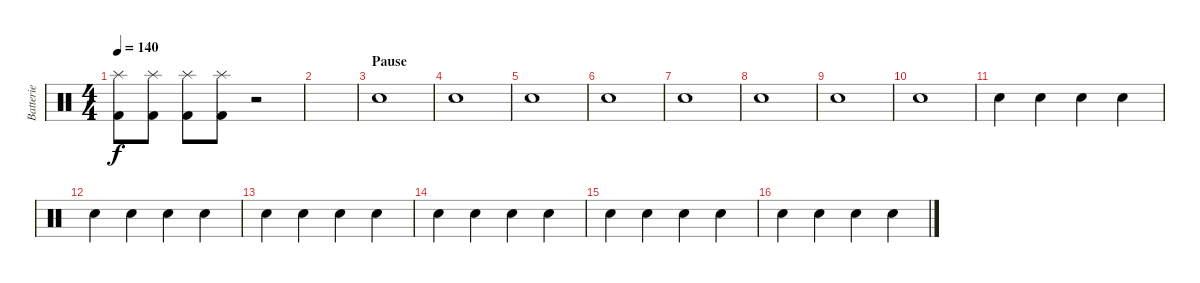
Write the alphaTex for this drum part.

\track ("Batterie" "Batterie") {instrument percussion}
\staff {score}
\articulation defaults
\ts (4 4)
\tempo 140
\clef neutral
\ks c
("Splash (hit)" "Kick (hit) 2").8{dy f} ("Splash (hit)" "Kick (hit) 2").8 ("Splash (hit)" "Kick (hit) 2").8 ("Splash (hit)" "Kick (hit) 2").8 r.2 |
|
\section ("" "Pause")
"Snare (hit) 2".1 |
"Snare (hit) 2".1 |
"Snare (hit) 2".1 |
"Snare (hit) 2".1 |
"Snare (hit) 2".1 |
"Snare (hit) 2".1 |
"Snare (hit) 2".1 |
"Snare (hit) 2".1 |
"Snare (hit) 2".4 "Snare (hit) 2".4 "Snare (hit) 2".4 "Snare (hit) 2".4 |
"Snare (hit) 2".4 "Snare (hit) 2".4 "Snare (hit) 2".4 "Snare (hit) 2".4 |
"Snare (hit) 2".4 "Snare (hit) 2".4 "Snare (hit) 2".4 "Snare (hit) 2".4 |
"Snare (hit) 2".4 "Snare (hit) 2".4 "Snare (hit) 2".4 "Snare (hit) 2".4 |
"Snare (hit) 2".4 "Snare (hit) 2".4 "Snare (hit) 2".4 "Snare (hit) 2".4 |
"Snare (hit) 2".4 "Snare (hit) 2".4 "Snare (hit) 2".4 "Snare (hit) 2".4
